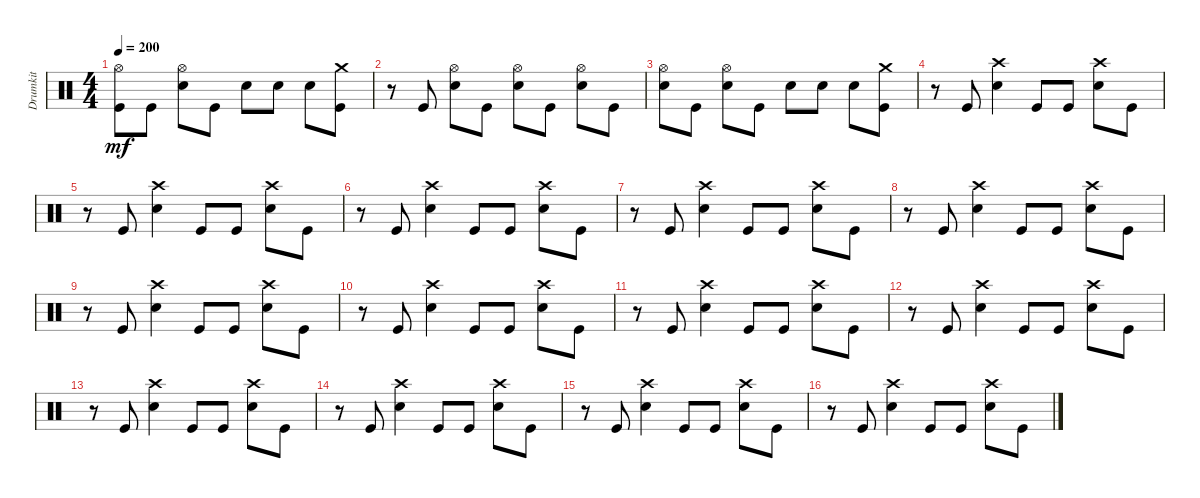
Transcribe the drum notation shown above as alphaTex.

\track ("Drumkit" "Drumkit") {instrument percussion}
\staff {score}
\articulation defaults
\ts (4 4)
\tempo 200
\clef neutral
\ks c
("Kick (hit)" "Hi-Hat (open)").8{dy mf} "Kick (hit)".8 ("Hi-Hat (open)" "Snare (hit) 2").8 "Kick (hit)".8 "Snare (hit) 2".8 "Snare (hit) 2".8 "Snare (hit) 2".8 ("Kick (hit)" "Crash medium (hit)").8 |
r.8 "Kick (hit)".8 ("Snare (hit) 2" "Hi-Hat (open)").8 "Kick (hit)".8 ("Snare (hit) 2" "Hi-Hat (open)").8 "Kick (hit)".8 ("Snare (hit) 2" "Hi-Hat (open)").8 "Kick (hit)".8 |
("Snare (hit) 2" "Hi-Hat (open)").8 "Kick (hit)".8 ("Snare (hit) 2" "Hi-Hat (open)").8 "Kick (hit)".8 "Snare (hit) 2".8 "Snare (hit) 2".8 "Snare (hit) 2".8 ("Kick (hit)" "Crash medium (hit)").8 |
r.8 "Kick (hit)".8 ("Snare (hit) 2" "Crash high (hit)").4 "Kick (hit)".8 "Kick (hit)".8 ("Snare (hit) 2" "Crash high (hit)").8 "Kick (hit)".8 |
r.8 "Kick (hit)".8 ("Snare (hit) 2" "Crash high (hit)").4 "Kick (hit)".8 "Kick (hit)".8 ("Snare (hit) 2" "Crash high (hit)").8 "Kick (hit)".8 |
r.8 "Kick (hit)".8 ("Snare (hit) 2" "Crash high (hit)").4 "Kick (hit)".8 "Kick (hit)".8 ("Snare (hit) 2" "Crash high (hit)").8 "Kick (hit)".8 |
r.8 "Kick (hit)".8 ("Snare (hit) 2" "Crash high (hit)").4 "Kick (hit)".8 "Kick (hit)".8 ("Snare (hit) 2" "Crash high (hit)").8 "Kick (hit)".8 |
r.8 "Kick (hit)".8 ("Snare (hit) 2" "Crash high (hit)").4 "Kick (hit)".8 "Kick (hit)".8 ("Snare (hit) 2" "Crash high (hit)").8 "Kick (hit)".8 |
r.8 "Kick (hit)".8 ("Snare (hit) 2" "Crash high (hit)").4 "Kick (hit)".8 "Kick (hit)".8 ("Snare (hit) 2" "Crash high (hit)").8 "Kick (hit)".8 |
r.8 "Kick (hit)".8 ("Snare (hit) 2" "Crash high (hit)").4 "Kick (hit)".8 "Kick (hit)".8 ("Snare (hit) 2" "Crash high (hit)").8 "Kick (hit)".8 |
r.8 "Kick (hit)".8 ("Snare (hit) 2" "Crash high (hit)").4 "Kick (hit)".8 "Kick (hit)".8 ("Snare (hit) 2" "Crash high (hit)").8 "Kick (hit)".8 |
r.8 "Kick (hit)".8 ("Snare (hit) 2" "Crash high (hit)").4 "Kick (hit)".8 "Kick (hit)".8 ("Snare (hit) 2" "Crash high (hit)").8 "Kick (hit)".8 |
r.8 "Kick (hit)".8 ("Snare (hit) 2" "Crash high (hit)").4 "Kick (hit)".8 "Kick (hit)".8 ("Snare (hit) 2" "Crash high (hit)").8 "Kick (hit)".8 |
r.8 "Kick (hit)".8 ("Snare (hit) 2" "Crash high (hit)").4 "Kick (hit)".8 "Kick (hit)".8 ("Snare (hit) 2" "Crash high (hit)").8 "Kick (hit)".8 |
r.8 "Kick (hit)".8 ("Snare (hit) 2" "Crash high (hit)").4 "Kick (hit)".8 "Kick (hit)".8 ("Snare (hit) 2" "Crash high (hit)").8 "Kick (hit)".8 |
r.8 "Kick (hit)".8 ("Snare (hit) 2" "Crash high (hit)").4 "Kick (hit)".8 "Kick (hit)".8 ("Snare (hit) 2" "Crash high (hit)").8 "Kick (hit)".8
